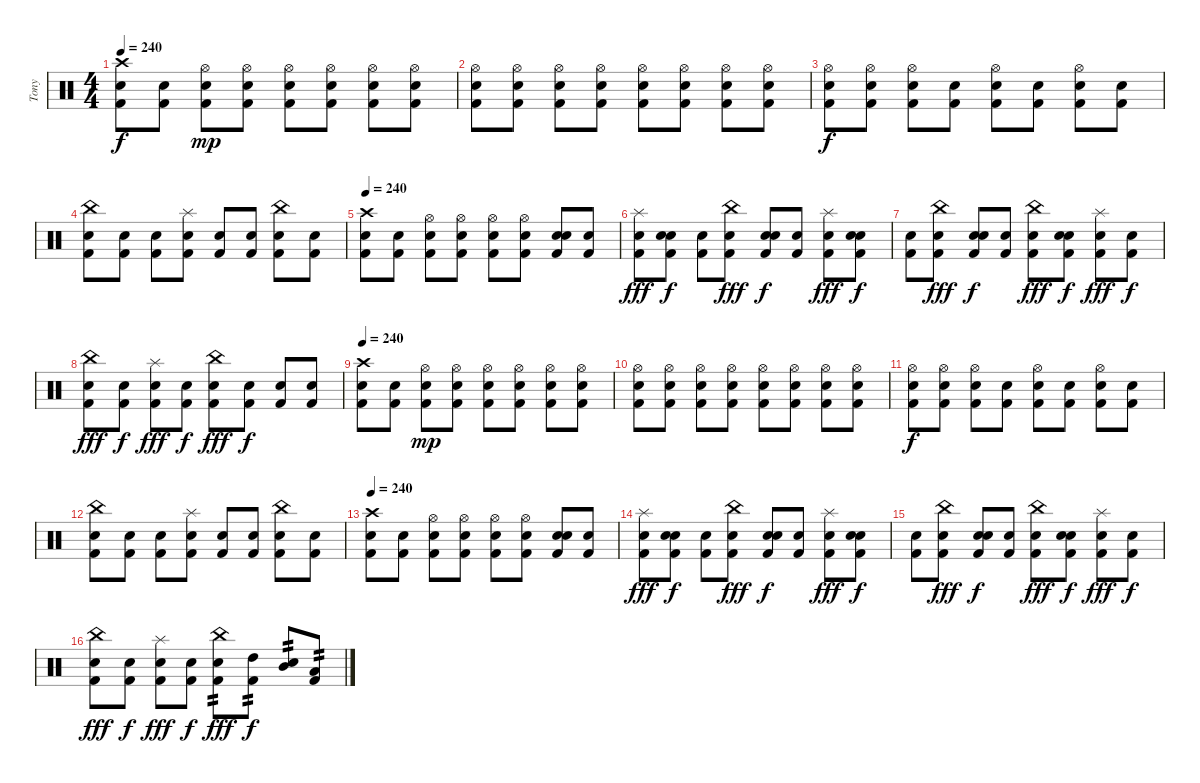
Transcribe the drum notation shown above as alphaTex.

\track ("Tony" "Tony") {instrument percussion}
\staff {score}
\articulation defaults
\ts (4 4)
\tempo 240
\clef neutral
\ks c
("Crash high (hit)" "Snare (hit) 2" "Kick (hit) 2").8{dy f} ("Snare (hit) 2" "Kick (hit) 2").8 ("Hi-Hat (open)" "Snare (hit) 2" "Kick (hit) 2").8{dy mp} ("Hi-Hat (open)" "Snare (hit) 2" "Kick (hit) 2").8 ("Hi-Hat (open)" "Snare (hit) 2" "Kick (hit) 2").8 ("Hi-Hat (open)" "Snare (hit) 2" "Kick (hit) 2").8 ("Hi-Hat (open)" "Snare (hit) 2" "Kick (hit) 2").8 ("Hi-Hat (open)" "Snare (hit) 2" "Kick (hit) 2").8 |
("Hi-Hat (open)" "Snare (hit) 2" "Kick (hit) 2").8 ("Hi-Hat (open)" "Snare (hit) 2" "Kick (hit) 2").8 ("Hi-Hat (open)" "Snare (hit) 2" "Kick (hit) 2").8 ("Hi-Hat (open)" "Snare (hit) 2" "Kick (hit) 2").8 ("Hi-Hat (open)" "Snare (hit) 2" "Kick (hit) 2").8 ("Hi-Hat (open)" "Snare (hit) 2" "Kick (hit) 2").8 ("Hi-Hat (open)" "Snare (hit) 2" "Kick (hit) 2").8 ("Hi-Hat (open)" "Snare (hit) 2" "Kick (hit) 2").8 |
("Hi-Hat (open)" "Snare (hit) 2" "Kick (hit) 2").8{dy f} ("Hi-Hat (open)" "Snare (hit) 2" "Kick (hit) 2").8 ("Hi-Hat (open)" "Snare (hit) 2" "Kick (hit) 2").8 ("Snare (hit) 2" "Kick (hit) 2").8 ("Hi-Hat (open)" "Snare (hit) 2" "Kick (hit) 2").8 ("Snare (hit) 2" "Kick (hit) 2").8 ("Hi-Hat (open)" "Snare (hit) 2" "Kick (hit) 2").8 ("Snare (hit) 2" "Kick (hit) 2").8 |
("China (hit)" "Snare (hit) 2" "Kick (hit) 2").8 ("Snare (hit) 2" "Kick (hit) 2").8 ("Snare (hit) 2" "Kick (hit) 2").8 ("Splash (hit)" "Snare (hit) 2" "Kick (hit) 2").8 ("Snare (hit) 2" "Kick (hit) 2").8 ("Snare (hit) 2" "Kick (hit) 2").8 ("China (hit)" "Snare (hit) 2" "Kick (hit) 2").8 ("Snare (hit) 2" "Kick (hit) 2").8 |
\tempo 240
("Crash high (hit)" "Snare (hit) 2" "Kick (hit) 2").8 ("Snare (hit) 2" "Kick (hit) 2").8 ("Hi-Hat (open)" "Snare (hit) 2" "Kick (hit) 2").8 ("Hi-Hat (open)" "Snare (hit) 2" "Kick (hit) 2").8 ("Hi-Hat (open)" "Snare (hit) 2" "Kick (hit) 2").8 ("Hi-Hat (open)" "Snare (hit) 2" "Kick (hit) 2").8 ("Snare (hit)" "Snare (hit) 2" "Kick (hit) 2").8 ("Snare (hit) 2" "Kick (hit) 2").8 |
("Splash (hit)" "Snare (hit) 2" "Kick (hit) 2").8{dy fff} ("Snare (hit)" "Snare (hit) 2" "Kick (hit) 2").8{dy f} ("Snare (hit) 2" "Kick (hit) 2").8 ("China (hit)" "Snare (hit) 2" "Kick (hit) 2").8{dy fff} ("Snare (hit)" "Snare (hit) 2" "Kick (hit) 2").8{dy f} ("Snare (hit) 2" "Kick (hit) 2").8 ("Splash (hit)" "Snare (hit) 2" "Kick (hit) 2").8{dy fff} ("Snare (hit)" "Snare (hit) 2" "Kick (hit) 2").8{dy f} |
("Snare (hit) 2" "Kick (hit) 2").8 ("China (hit)" "Snare (hit) 2" "Kick (hit) 2").8{dy fff} ("Snare (hit)" "Snare (hit) 2" "Kick (hit) 2").8{dy f} ("Snare (hit) 2" "Kick (hit) 2").8 ("China (hit)" "Snare (hit) 2" "Kick (hit) 2").8{dy fff} ("Snare (hit)" "Snare (hit) 2" "Kick (hit) 2").8{dy f} ("Splash (hit)" "Snare (hit) 2" "Kick (hit) 2").8{dy fff} ("Snare (hit) 2" "Kick (hit) 2").8{dy f} |
("China (hit)" "Snare (hit) 2" "Kick (hit) 2").8{dy fff} ("Snare (hit) 2" "Kick (hit) 2").8{dy f} ("Splash (hit)" "Snare (hit) 2" "Kick (hit) 2").8{dy fff} ("Snare (hit) 2" "Kick (hit) 2").8{dy f} ("China (hit)" "Snare (hit) 2" "Kick (hit) 2").8{dy fff} ("Snare (hit) 2" "Kick (hit) 2").8{dy f} ("Snare (hit) 2" "Kick (hit) 2").8 ("Snare (hit) 2" "Kick (hit) 2").8 |
\tempo 240
("Crash high (hit)" "Snare (hit) 2" "Kick (hit) 2").8 ("Snare (hit) 2" "Kick (hit) 2").8 ("Hi-Hat (open)" "Snare (hit) 2" "Kick (hit) 2").8{dy mp} ("Hi-Hat (open)" "Snare (hit) 2" "Kick (hit) 2").8 ("Hi-Hat (open)" "Snare (hit) 2" "Kick (hit) 2").8 ("Hi-Hat (open)" "Snare (hit) 2" "Kick (hit) 2").8 ("Hi-Hat (open)" "Snare (hit) 2" "Kick (hit) 2").8 ("Hi-Hat (open)" "Snare (hit) 2" "Kick (hit) 2").8 |
("Hi-Hat (open)" "Snare (hit) 2" "Kick (hit) 2").8 ("Hi-Hat (open)" "Snare (hit) 2" "Kick (hit) 2").8 ("Hi-Hat (open)" "Snare (hit) 2" "Kick (hit) 2").8 ("Hi-Hat (open)" "Snare (hit) 2" "Kick (hit) 2").8 ("Hi-Hat (open)" "Snare (hit) 2" "Kick (hit) 2").8 ("Hi-Hat (open)" "Snare (hit) 2" "Kick (hit) 2").8 ("Hi-Hat (open)" "Snare (hit) 2" "Kick (hit) 2").8 ("Hi-Hat (open)" "Snare (hit) 2" "Kick (hit) 2").8 |
("Hi-Hat (open)" "Snare (hit) 2" "Kick (hit) 2").8{dy f} ("Hi-Hat (open)" "Snare (hit) 2" "Kick (hit) 2").8 ("Hi-Hat (open)" "Snare (hit) 2" "Kick (hit) 2").8 ("Snare (hit) 2" "Kick (hit) 2").8 ("Hi-Hat (open)" "Snare (hit) 2" "Kick (hit) 2").8 ("Snare (hit) 2" "Kick (hit) 2").8 ("Hi-Hat (open)" "Snare (hit) 2" "Kick (hit) 2").8 ("Snare (hit) 2" "Kick (hit) 2").8 |
("China (hit)" "Snare (hit) 2" "Kick (hit) 2").8 ("Snare (hit) 2" "Kick (hit) 2").8 ("Snare (hit) 2" "Kick (hit) 2").8 ("Splash (hit)" "Snare (hit) 2" "Kick (hit) 2").8 ("Snare (hit) 2" "Kick (hit) 2").8 ("Snare (hit) 2" "Kick (hit) 2").8 ("China (hit)" "Snare (hit) 2" "Kick (hit) 2").8 ("Snare (hit) 2" "Kick (hit) 2").8 |
\tempo 240
("Crash high (hit)" "Snare (hit) 2" "Kick (hit) 2").8 ("Snare (hit) 2" "Kick (hit) 2").8 ("Hi-Hat (open)" "Snare (hit) 2" "Kick (hit) 2").8 ("Hi-Hat (open)" "Snare (hit) 2" "Kick (hit) 2").8 ("Hi-Hat (open)" "Snare (hit) 2" "Kick (hit) 2").8 ("Hi-Hat (open)" "Snare (hit) 2" "Kick (hit) 2").8 ("Snare (hit)" "Snare (hit) 2" "Kick (hit) 2").8 ("Snare (hit) 2" "Kick (hit) 2").8 |
("Splash (hit)" "Snare (hit) 2" "Kick (hit) 2").8{dy fff} ("Snare (hit)" "Snare (hit) 2" "Kick (hit) 2").8{dy f} ("Snare (hit) 2" "Kick (hit) 2").8 ("China (hit)" "Snare (hit) 2" "Kick (hit) 2").8{dy fff} ("Snare (hit)" "Snare (hit) 2" "Kick (hit) 2").8{dy f} ("Snare (hit) 2" "Kick (hit) 2").8 ("Splash (hit)" "Snare (hit) 2" "Kick (hit) 2").8{dy fff} ("Snare (hit)" "Snare (hit) 2" "Kick (hit) 2").8{dy f} |
("Snare (hit) 2" "Kick (hit) 2").8 ("China (hit)" "Snare (hit) 2" "Kick (hit) 2").8{dy fff} ("Snare (hit)" "Snare (hit) 2" "Kick (hit) 2").8{dy f} ("Snare (hit) 2" "Kick (hit) 2").8 ("China (hit)" "Snare (hit) 2" "Kick (hit) 2").8{dy fff} ("Snare (hit)" "Snare (hit) 2" "Kick (hit) 2").8{dy f} ("Splash (hit)" "Snare (hit) 2" "Kick (hit) 2").8{dy fff} ("Snare (hit) 2" "Kick (hit) 2").8{dy f} |
("China (hit)" "Snare (hit) 2" "Kick (hit) 2").8{dy fff} ("Snare (hit) 2" "Kick (hit) 2").8{dy f} ("Splash (hit)" "Snare (hit) 2" "Kick (hit) 2").8{dy fff} ("Snare (hit) 2" "Kick (hit) 2").8{dy f} ("China (hit)" "Snare (hit) 2" "Kick (hit) 2").8{tp 2 dy fff} ("High Tom (hit)" "Kick (hit) 2").8{tp 2 dy f} ("Mid Tom (hit)" "Snare (hit)").8{tp 2} ("Low Tom (hit)" "Kick (hit) 2").8{tp 2}
